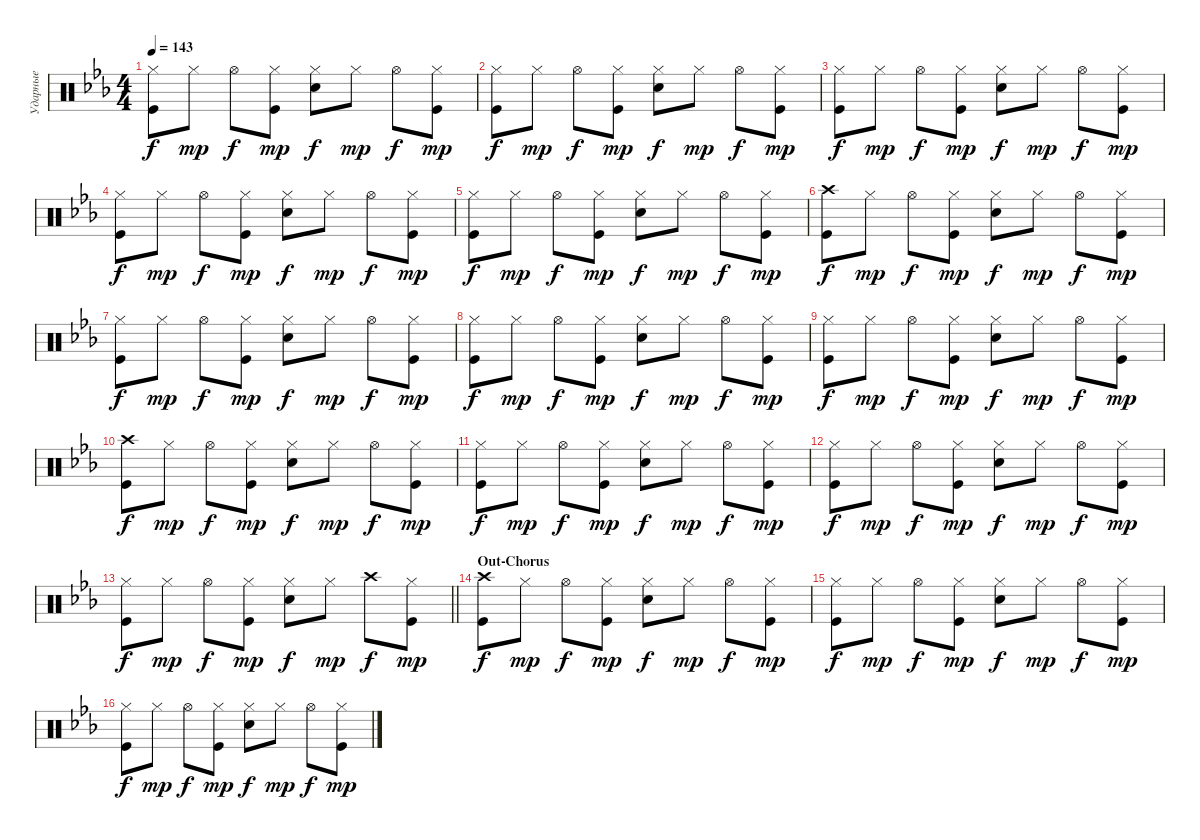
\track ("Ударные" "Ударные") {instrument percussion}
\staff {score}
\articulation defaults
\ts (4 4)
\tempo 143
\clef neutral
\ks cminor
("Kick (hit)" "Hi-Hat (closed)").8{dy f} "Hi-Hat (closed)".8{dy mp} "Hi-Hat (open)".8{dy f} ("Kick (hit)" "Hi-Hat (closed)").8{dy mp} ("Snare (hit) 2" "Hi-Hat (closed)").8{dy f} "Hi-Hat (closed)".8{dy mp} "Hi-Hat (open)".8{dy f} ("Kick (hit)" "Hi-Hat (closed)").8{dy mp} |
("Kick (hit)" "Hi-Hat (closed)").8{dy f} "Hi-Hat (closed)".8{dy mp} "Hi-Hat (open)".8{dy f} ("Kick (hit)" "Hi-Hat (closed)").8{dy mp} ("Snare (hit) 2" "Hi-Hat (closed)").8{dy f} "Hi-Hat (closed)".8{dy mp} "Hi-Hat (open)".8{dy f} ("Kick (hit)" "Hi-Hat (closed)").8{dy mp} |
("Kick (hit)" "Hi-Hat (closed)").8{dy f} "Hi-Hat (closed)".8{dy mp} "Hi-Hat (open)".8{dy f} ("Kick (hit)" "Hi-Hat (closed)").8{dy mp} ("Snare (hit) 2" "Hi-Hat (closed)").8{dy f} "Hi-Hat (closed)".8{dy mp} "Hi-Hat (open)".8{dy f} ("Kick (hit)" "Hi-Hat (closed)").8{dy mp} |
("Kick (hit)" "Hi-Hat (closed)").8{dy f} "Hi-Hat (closed)".8{dy mp} "Hi-Hat (open)".8{dy f} ("Kick (hit)" "Hi-Hat (closed)").8{dy mp} ("Snare (hit) 2" "Hi-Hat (closed)").8{dy f} "Hi-Hat (closed)".8{dy mp} "Hi-Hat (open)".8{dy f} ("Kick (hit)" "Hi-Hat (closed)").8{dy mp} |
("Kick (hit)" "Hi-Hat (closed)").8{dy f} "Hi-Hat (closed)".8{dy mp} "Hi-Hat (open)".8{dy f} ("Kick (hit)" "Hi-Hat (closed)").8{dy mp} ("Snare (hit) 2" "Hi-Hat (closed)").8{dy f} "Hi-Hat (closed)".8{dy mp} "Hi-Hat (open)".8{dy f} ("Kick (hit)" "Hi-Hat (closed)").8{dy mp} |
("Kick (hit)" "Crash high (hit)").8{dy f} "Hi-Hat (closed)".8{dy mp} "Hi-Hat (open)".8{dy f} ("Kick (hit)" "Hi-Hat (closed)").8{dy mp} ("Snare (hit) 2" "Hi-Hat (closed)").8{dy f} "Hi-Hat (closed)".8{dy mp} "Hi-Hat (open)".8{dy f} ("Kick (hit)" "Hi-Hat (closed)").8{dy mp} |
("Kick (hit)" "Hi-Hat (closed)").8{dy f} "Hi-Hat (closed)".8{dy mp} "Hi-Hat (open)".8{dy f} ("Kick (hit)" "Hi-Hat (closed)").8{dy mp} ("Snare (hit) 2" "Hi-Hat (closed)").8{dy f} "Hi-Hat (closed)".8{dy mp} "Hi-Hat (open)".8{dy f} ("Kick (hit)" "Hi-Hat (closed)").8{dy mp} |
("Kick (hit)" "Hi-Hat (closed)").8{dy f} "Hi-Hat (closed)".8{dy mp} "Hi-Hat (open)".8{dy f} ("Kick (hit)" "Hi-Hat (closed)").8{dy mp} ("Snare (hit) 2" "Hi-Hat (closed)").8{dy f} "Hi-Hat (closed)".8{dy mp} "Hi-Hat (open)".8{dy f} ("Kick (hit)" "Hi-Hat (closed)").8{dy mp} |
("Kick (hit)" "Hi-Hat (closed)").8{dy f} "Hi-Hat (closed)".8{dy mp} "Hi-Hat (open)".8{dy f} ("Kick (hit)" "Hi-Hat (closed)").8{dy mp} ("Snare (hit) 2" "Hi-Hat (closed)").8{dy f} "Hi-Hat (closed)".8{dy mp} "Hi-Hat (open)".8{dy f} ("Kick (hit)" "Hi-Hat (closed)").8{dy mp} |
("Kick (hit)" "Crash high (hit)").8{dy f} "Hi-Hat (closed)".8{dy mp} "Hi-Hat (open)".8{dy f} ("Kick (hit)" "Hi-Hat (closed)").8{dy mp} ("Snare (hit) 2" "Hi-Hat (closed)").8{dy f} "Hi-Hat (closed)".8{dy mp} "Hi-Hat (open)".8{dy f} ("Kick (hit)" "Hi-Hat (closed)").8{dy mp} |
("Kick (hit)" "Hi-Hat (closed)").8{dy f} "Hi-Hat (closed)".8{dy mp} "Hi-Hat (open)".8{dy f} ("Kick (hit)" "Hi-Hat (closed)").8{dy mp} ("Snare (hit) 2" "Hi-Hat (closed)").8{dy f} "Hi-Hat (closed)".8{dy mp} "Hi-Hat (open)".8{dy f} ("Kick (hit)" "Hi-Hat (closed)").8{dy mp} |
("Kick (hit)" "Hi-Hat (closed)").8{dy f} "Hi-Hat (closed)".8{dy mp} "Hi-Hat (open)".8{dy f} ("Kick (hit)" "Hi-Hat (closed)").8{dy mp} ("Snare (hit) 2" "Hi-Hat (closed)").8{dy f} "Hi-Hat (closed)".8{dy mp} "Hi-Hat (open)".8{dy f} ("Kick (hit)" "Hi-Hat (closed)").8{dy mp} |
\barLineRight lightlight
("Kick (hit)" "Hi-Hat (closed)").8{dy f} "Hi-Hat (closed)".8{dy mp} "Hi-Hat (open)".8{dy f} ("Kick (hit)" "Hi-Hat (closed)").8{dy mp} ("Snare (hit) 2" "Hi-Hat (closed)").8{dy f} "Hi-Hat (closed)".8{dy mp} "Crash high (hit)".8{dy f} ("Kick (hit)" "Hi-Hat (closed)").8{dy mp} |
\section ("" "Out-Chorus")
("Kick (hit)" "Crash high (hit)").8{dy f} "Hi-Hat (closed)".8{dy mp} "Hi-Hat (open)".8{dy f} ("Kick (hit)" "Hi-Hat (closed)").8{dy mp} ("Snare (hit) 2" "Hi-Hat (closed)").8{dy f} "Hi-Hat (closed)".8{dy mp} "Hi-Hat (open)".8{dy f} ("Kick (hit)" "Hi-Hat (closed)").8{dy mp} |
("Kick (hit)" "Hi-Hat (closed)").8{dy f} "Hi-Hat (closed)".8{dy mp} "Hi-Hat (open)".8{dy f} ("Kick (hit)" "Hi-Hat (closed)").8{dy mp} ("Snare (hit) 2" "Hi-Hat (closed)").8{dy f} "Hi-Hat (closed)".8{dy mp} "Hi-Hat (open)".8{dy f} ("Kick (hit)" "Hi-Hat (closed)").8{dy mp} |
("Kick (hit)" "Hi-Hat (closed)").8{dy f} "Hi-Hat (closed)".8{dy mp} "Hi-Hat (open)".8{dy f} ("Kick (hit)" "Hi-Hat (closed)").8{dy mp} ("Snare (hit) 2" "Hi-Hat (closed)").8{dy f} "Hi-Hat (closed)".8{dy mp} "Hi-Hat (open)".8{dy f} ("Kick (hit)" "Hi-Hat (closed)").8{dy mp}
